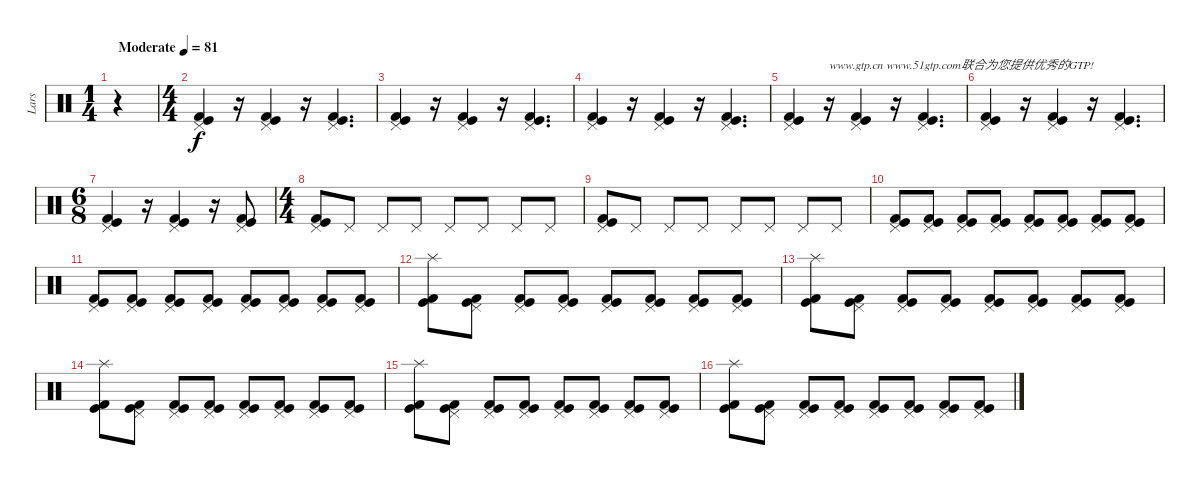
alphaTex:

\track ("Lars" "Lars") {instrument percussion}
\staff {score}
\articulation defaults
\ts (1 4)
\tempo (81 "Moderate")
\clef neutral
\ks c
r.4{dy f} |
\ts (4 4)
("Pedal Hi-Hat (hit)" "Kick (hit)" "Kick (hit) 2").4{volume 16} r.16 ("Pedal Hi-Hat (hit)" "Kick (hit)" "Kick (hit) 2").4 r.16 ("Pedal Hi-Hat (hit)" "Kick (hit)" "Kick (hit) 2").4{d} |
("Pedal Hi-Hat (hit)" "Kick (hit)" "Kick (hit) 2").4 r.16 ("Pedal Hi-Hat (hit)" "Kick (hit)" "Kick (hit) 2").4 r.16 ("Pedal Hi-Hat (hit)" "Kick (hit)" "Kick (hit) 2").4{d} |
("Pedal Hi-Hat (hit)" "Kick (hit)" "Kick (hit) 2").4 r.16 ("Pedal Hi-Hat (hit)" "Kick (hit)" "Kick (hit) 2").4 r.16 ("Pedal Hi-Hat (hit)" "Kick (hit)" "Kick (hit) 2").4{d} |
("Pedal Hi-Hat (hit)" "Kick (hit)" "Kick (hit) 2").4 r.16{txt "www.gtp.cn www.51gtp.com联合为您提供优秀的GTP!"} ("Pedal Hi-Hat (hit)" "Kick (hit)" "Kick (hit) 2").4 r.16 ("Pedal Hi-Hat (hit)" "Kick (hit)" "Kick (hit) 2").4{d} |
("Pedal Hi-Hat (hit)" "Kick (hit)" "Kick (hit) 2").4 r.16 ("Pedal Hi-Hat (hit)" "Kick (hit)" "Kick (hit) 2").4 r.16 ("Pedal Hi-Hat (hit)" "Kick (hit)" "Kick (hit) 2").4{d} |
\ts (6 8)
("Pedal Hi-Hat (hit)" "Kick (hit)" "Kick (hit) 2").4 r.16 ("Pedal Hi-Hat (hit)" "Kick (hit)" "Kick (hit) 2").4 r.16 ("Pedal Hi-Hat (hit)" "Kick (hit)" "Kick (hit) 2").8 |
\ts (4 4)
("Pedal Hi-Hat (hit)" "Kick (hit)" "Kick (hit) 2").8 "Pedal Hi-Hat (hit)".8 "Pedal Hi-Hat (hit)".8 "Pedal Hi-Hat (hit)".8 "Pedal Hi-Hat (hit)".8 "Pedal Hi-Hat (hit)".8 "Pedal Hi-Hat (hit)".8 "Pedal Hi-Hat (hit)".8 |
("Pedal Hi-Hat (hit)" "Kick (hit)" "Kick (hit) 2").8 "Pedal Hi-Hat (hit)".8 "Pedal Hi-Hat (hit)".8 "Pedal Hi-Hat (hit)".8 "Pedal Hi-Hat (hit)".8 "Pedal Hi-Hat (hit)".8 "Pedal Hi-Hat (hit)".8 "Pedal Hi-Hat (hit)".8 |
("Pedal Hi-Hat (hit)" "Kick (hit)" "Kick (hit) 2").8 ("Pedal Hi-Hat (hit)" "Kick (hit)" "Kick (hit) 2").8 ("Pedal Hi-Hat (hit)" "Kick (hit)" "Kick (hit) 2").8 ("Pedal Hi-Hat (hit)" "Kick (hit)" "Kick (hit) 2").8 ("Pedal Hi-Hat (hit)" "Kick (hit)" "Kick (hit) 2").8 ("Pedal Hi-Hat (hit)" "Kick (hit)" "Kick (hit) 2").8 ("Pedal Hi-Hat (hit)" "Kick (hit)" "Kick (hit) 2").8 ("Pedal Hi-Hat (hit)" "Kick (hit)" "Kick (hit) 2").8 |
("Pedal Hi-Hat (hit)" "Kick (hit)" "Kick (hit) 2").8 ("Pedal Hi-Hat (hit)" "Kick (hit)" "Kick (hit) 2").8 ("Pedal Hi-Hat (hit)" "Kick (hit)" "Kick (hit) 2").8 ("Pedal Hi-Hat (hit)" "Kick (hit)" "Kick (hit) 2").8 ("Pedal Hi-Hat (hit)" "Kick (hit)" "Kick (hit) 2").8 ("Pedal Hi-Hat (hit)" "Kick (hit)" "Kick (hit) 2").8 ("Pedal Hi-Hat (hit)" "Kick (hit)" "Kick (hit) 2").8 ("Pedal Hi-Hat (hit)" "Kick (hit)" "Kick (hit) 2").8 |
("Splash (hit)" "Kick (hit)" "Kick (hit) 2").8 ("Pedal Hi-Hat (hit)" "Kick (hit)" "Kick (hit) 2").8 ("Pedal Hi-Hat (hit)" "Kick (hit)" "Kick (hit) 2").8 ("Pedal Hi-Hat (hit)" "Kick (hit)" "Kick (hit) 2").8 ("Pedal Hi-Hat (hit)" "Kick (hit)" "Kick (hit) 2").8 ("Pedal Hi-Hat (hit)" "Kick (hit)" "Kick (hit) 2").8 ("Pedal Hi-Hat (hit)" "Kick (hit)" "Kick (hit) 2").8 ("Pedal Hi-Hat (hit)" "Kick (hit)" "Kick (hit) 2").8 |
("Splash (hit)" "Kick (hit)" "Kick (hit) 2").8 ("Pedal Hi-Hat (hit)" "Kick (hit)" "Kick (hit) 2").8 ("Pedal Hi-Hat (hit)" "Kick (hit)" "Kick (hit) 2").8 ("Pedal Hi-Hat (hit)" "Kick (hit)" "Kick (hit) 2").8 ("Pedal Hi-Hat (hit)" "Kick (hit)" "Kick (hit) 2").8 ("Pedal Hi-Hat (hit)" "Kick (hit)" "Kick (hit) 2").8 ("Pedal Hi-Hat (hit)" "Kick (hit)" "Kick (hit) 2").8 ("Pedal Hi-Hat (hit)" "Kick (hit)" "Kick (hit) 2").8 |
("Splash (hit)" "Kick (hit)" "Kick (hit) 2").8 ("Pedal Hi-Hat (hit)" "Kick (hit)" "Kick (hit) 2").8 ("Pedal Hi-Hat (hit)" "Kick (hit)" "Kick (hit) 2").8 ("Pedal Hi-Hat (hit)" "Kick (hit)" "Kick (hit) 2").8 ("Pedal Hi-Hat (hit)" "Kick (hit)" "Kick (hit) 2").8 ("Pedal Hi-Hat (hit)" "Kick (hit)" "Kick (hit) 2").8 ("Pedal Hi-Hat (hit)" "Kick (hit)" "Kick (hit) 2").8 ("Pedal Hi-Hat (hit)" "Kick (hit)" "Kick (hit) 2").8 |
("Splash (hit)" "Kick (hit)" "Kick (hit) 2").8 ("Pedal Hi-Hat (hit)" "Kick (hit)" "Kick (hit) 2").8 ("Pedal Hi-Hat (hit)" "Kick (hit)" "Kick (hit) 2").8 ("Pedal Hi-Hat (hit)" "Kick (hit)" "Kick (hit) 2").8 ("Pedal Hi-Hat (hit)" "Kick (hit)" "Kick (hit) 2").8 ("Pedal Hi-Hat (hit)" "Kick (hit)" "Kick (hit) 2").8 ("Pedal Hi-Hat (hit)" "Kick (hit)" "Kick (hit) 2").8 ("Pedal Hi-Hat (hit)" "Kick (hit)" "Kick (hit) 2").8 |
("Splash (hit)" "Kick (hit)" "Kick (hit) 2").8 ("Pedal Hi-Hat (hit)" "Kick (hit)" "Kick (hit) 2").8 ("Pedal Hi-Hat (hit)" "Kick (hit)" "Kick (hit) 2").8 ("Pedal Hi-Hat (hit)" "Kick (hit)" "Kick (hit) 2").8 ("Pedal Hi-Hat (hit)" "Kick (hit)" "Kick (hit) 2").8 ("Pedal Hi-Hat (hit)" "Kick (hit)" "Kick (hit) 2").8 ("Pedal Hi-Hat (hit)" "Kick (hit)" "Kick (hit) 2").8 ("Pedal Hi-Hat (hit)" "Kick (hit)" "Kick (hit) 2").8
